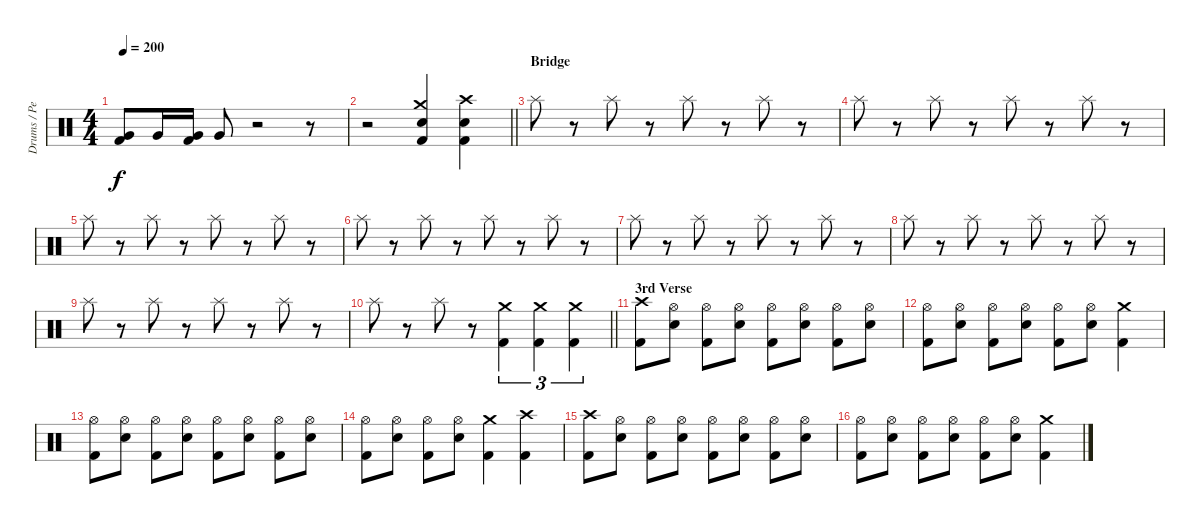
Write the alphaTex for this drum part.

\track ("Drums / Percussion" "Drums / Pe") {instrument percussion}
\staff {score}
\articulation defaults
\ts (4 4)
\tempo 200
\clef neutral
\ks c
("Very Low Tom (hit)" "Kick (hit) 2").8{dy f} "Very Low Tom (hit)".16 ("Very Low Tom (hit)" "Kick (hit) 2").16 "Very Low Tom (hit)".8 r.2 r.8 |
\barLineRight lightlight
r.2 ("Crash medium (hit)" "Electric Snare (hit)" "Kick (hit) 2").4 ("Crash high (hit)" "Electric Snare (hit)" "Kick (hit) 2").4 |
\section ("" "Bridge")
"Splash (hit)".8 r.8 "Splash (hit)".8 r.8 "Splash (hit)".8 r.8 "Splash (hit)".8 r.8 |
"Splash (hit)".8 r.8 "Splash (hit)".8 r.8 "Splash (hit)".8 r.8 "Splash (hit)".8 r.8 |
"Splash (hit)".8 r.8 "Splash (hit)".8 r.8 "Splash (hit)".8 r.8 "Splash (hit)".8 r.8 |
"Splash (hit)".8 r.8 "Splash (hit)".8 r.8 "Splash (hit)".8 r.8 "Splash (hit)".8 r.8 |
"Splash (hit)".8 r.8 "Splash (hit)".8 r.8 "Splash (hit)".8 r.8 "Splash (hit)".8 r.8 |
"Splash (hit)".8 r.8 "Splash (hit)".8 r.8 "Splash (hit)".8 r.8 "Splash (hit)".8 r.8 |
"Splash (hit)".8 r.8 "Splash (hit)".8 r.8 "Splash (hit)".8 r.8 "Splash (hit)".8 r.8 |
\barLineRight lightlight "Splash (hit)".8
r.8 "Splash (hit)".8 r.8 ("Crash medium (hit)" "Kick (hit) 2").4{tu (3 2)} ("Crash medium (hit)" "Kick (hit) 2").4{tu (3 2)} ("Crash medium (hit)" "Kick (hit) 2").4{tu (3 2)} |
\section ("" "3rd Verse")
("Crash high (hit)" "Kick (hit) 2").8 ("Hi-Hat (open)" "Electric Snare (hit)").8 ("Hi-Hat (open)" "Kick (hit) 2").8 ("Hi-Hat (open)" "Electric Snare (hit)").8 ("Hi-Hat (open)" "Kick (hit) 2").8 ("Hi-Hat (open)" "Electric Snare (hit)").8 ("Hi-Hat (open)" "Kick (hit) 2").8 ("Hi-Hat (open)" "Electric Snare (hit)").8 |
("Hi-Hat (open)" "Kick (hit) 2").8 ("Hi-Hat (open)" "Electric Snare (hit)").8 ("Hi-Hat (open)" "Kick (hit) 2").8 ("Hi-Hat (open)" "Electric Snare (hit)").8 ("Hi-Hat (open)" "Kick (hit) 2").8 ("Hi-Hat (open)" "Electric Snare (hit)").8 ("Crash medium (hit)" "Kick (hit) 2").4 |
("Hi-Hat (open)" "Kick (hit) 2").8 ("Hi-Hat (open)" "Electric Snare (hit)").8 ("Hi-Hat (open)" "Kick (hit) 2").8 ("Hi-Hat (open)" "Electric Snare (hit)").8 ("Hi-Hat (open)" "Kick (hit) 2").8 ("Hi-Hat (open)" "Electric Snare (hit)").8 ("Hi-Hat (open)" "Kick (hit) 2").8 ("Hi-Hat (open)" "Electric Snare (hit)").8 |
("Hi-Hat (open)" "Kick (hit) 2").8 ("Hi-Hat (open)" "Electric Snare (hit)").8 ("Hi-Hat (open)" "Kick (hit) 2").8 ("Hi-Hat (open)" "Electric Snare (hit)").8 ("Crash medium (hit)" "Kick (hit) 2").4 ("Crash high (hit)" "Kick (hit) 2").4 |
("Crash high (hit)" "Kick (hit) 2").8 ("Hi-Hat (open)" "Electric Snare (hit)").8 ("Hi-Hat (open)" "Kick (hit) 2").8 ("Hi-Hat (open)" "Electric Snare (hit)").8 ("Hi-Hat (open)" "Kick (hit) 2").8 ("Hi-Hat (open)" "Electric Snare (hit)").8 ("Hi-Hat (open)" "Kick (hit) 2").8 ("Hi-Hat (open)" "Electric Snare (hit)").8 |
("Hi-Hat (open)" "Kick (hit) 2").8 ("Hi-Hat (open)" "Electric Snare (hit)").8 ("Hi-Hat (open)" "Kick (hit) 2").8 ("Hi-Hat (open)" "Electric Snare (hit)").8 ("Hi-Hat (open)" "Kick (hit) 2").8 ("Hi-Hat (open)" "Electric Snare (hit)").8 ("Crash medium (hit)" "Kick (hit) 2").4
